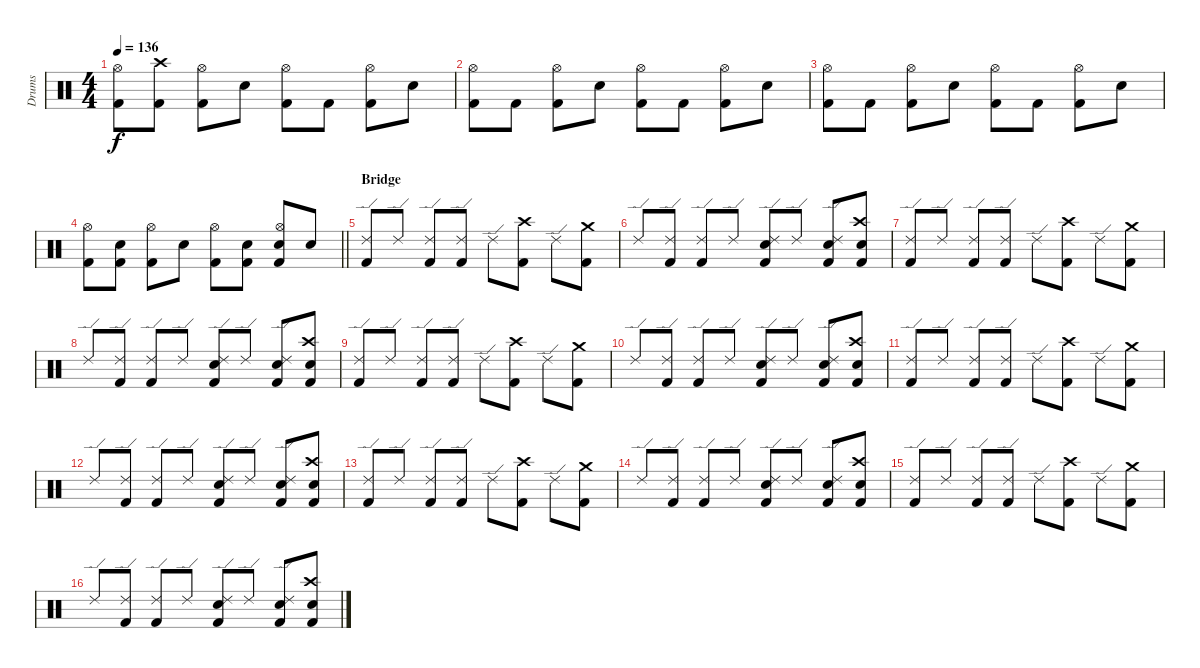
\track ("Drums" "Drums") {instrument percussion}
\staff {score}
\articulation defaults
\ts (4 4)
\tempo 136
\clef neutral
\ks c
("Kick (hit) 2" "Hi-Hat (open)").8{dy f} ("Kick (hit) 2" "Crash high (hit)").8 ("Kick (hit) 2" "Hi-Hat (open)").8 "Snare (hit) 2".8 ("Kick (hit) 2" "Hi-Hat (open)").8 "Kick (hit) 2".8 ("Kick (hit) 2" "Hi-Hat (open)").8 "Snare (hit) 2".8 |
("Kick (hit) 2" "Hi-Hat (open)").8 "Kick (hit) 2".8 ("Kick (hit) 2" "Hi-Hat (open)").8 "Snare (hit) 2".8 ("Kick (hit) 2" "Hi-Hat (open)").8 "Kick (hit) 2".8 ("Kick (hit) 2" "Hi-Hat (open)").8 "Snare (hit) 2".8 |
("Kick (hit) 2" "Hi-Hat (open)").8 "Kick (hit) 2".8 ("Kick (hit) 2" "Hi-Hat (open)").8 "Snare (hit) 2".8 ("Kick (hit) 2" "Hi-Hat (open)").8 "Kick (hit) 2".8 ("Kick (hit) 2" "Hi-Hat (open)").8 "Snare (hit) 2".8 |
\barLineRight lightlight
("Kick (hit) 2" "Hi-Hat (open)").8 ("Kick (hit) 2" "Snare (hit) 2").8 ("Kick (hit) 2" "Hi-Hat (open)").8 "Snare (hit) 2".8 ("Kick (hit) 2" "Hi-Hat (open)").8 ("Kick (hit) 2" "Snare (hit) 2").8 ("Kick (hit) 2" "Hi-Hat (open)" "Snare (hit) 2").8 "Snare (hit) 2".8 |
\section ("" "Bridge")
("Kick (hit) 2" "Ride (edge) 2").8 "Ride (edge) 2".8 ("Kick (hit) 2" "Ride (edge) 2").8 ("Kick (hit) 2" "Ride (edge) 2").8 "Ride (edge) 2".8 ("Kick (hit) 2" "Crash high (hit)").8 "Ride (edge) 2".8 ("Kick (hit) 2" "Crash medium (hit)").8 |
"Ride (edge) 2".8 ("Kick (hit) 2" "Ride (edge) 2").8 ("Kick (hit) 2" "Ride (edge) 2").8 "Ride (edge) 2".8 ("Kick (hit) 2" "Snare (hit) 2" "Ride (edge) 2").8 "Ride (edge) 2".8 ("Kick (hit) 2" "Snare (hit) 2" "Ride (edge) 2").8 ("Kick (hit) 2" "Snare (hit) 2" "Crash high (hit)").8 |
("Kick (hit) 2" "Ride (edge) 2").8 "Ride (edge) 2".8 ("Kick (hit) 2" "Ride (edge) 2").8 ("Kick (hit) 2" "Ride (edge) 2").8 "Ride (edge) 2".8 ("Kick (hit) 2" "Crash high (hit)").8 "Ride (edge) 2".8 ("Kick (hit) 2" "Crash medium (hit)").8 |
"Ride (edge) 2".8 ("Kick (hit) 2" "Ride (edge) 2").8 ("Kick (hit) 2" "Ride (edge) 2").8 "Ride (edge) 2".8 ("Kick (hit) 2" "Snare (hit) 2" "Ride (edge) 2").8 "Ride (edge) 2".8 ("Kick (hit) 2" "Snare (hit) 2" "Ride (edge) 2").8 ("Kick (hit) 2" "Snare (hit) 2" "Crash high (hit)").8 |
("Kick (hit) 2" "Ride (edge) 2").8 "Ride (edge) 2".8 ("Kick (hit) 2" "Ride (edge) 2").8 ("Kick (hit) 2" "Ride (edge) 2").8 "Ride (edge) 2".8 ("Kick (hit) 2" "Crash high (hit)").8 "Ride (edge) 2".8 ("Kick (hit) 2" "Crash medium (hit)").8 |
"Ride (edge) 2".8 ("Kick (hit) 2" "Ride (edge) 2").8 ("Kick (hit) 2" "Ride (edge) 2").8 "Ride (edge) 2".8 ("Kick (hit) 2" "Snare (hit) 2" "Ride (edge) 2").8 "Ride (edge) 2".8 ("Kick (hit) 2" "Snare (hit) 2" "Ride (edge) 2").8 ("Kick (hit) 2" "Snare (hit) 2" "Crash high (hit)").8 |
("Kick (hit) 2" "Ride (edge) 2").8 "Ride (edge) 2".8 ("Kick (hit) 2" "Ride (edge) 2").8 ("Kick (hit) 2" "Ride (edge) 2").8 "Ride (edge) 2".8 ("Kick (hit) 2" "Crash high (hit)").8 "Ride (edge) 2".8 ("Kick (hit) 2" "Crash medium (hit)").8 |
"Ride (edge) 2".8 ("Kick (hit) 2" "Ride (edge) 2").8 ("Kick (hit) 2" "Ride (edge) 2").8 "Ride (edge) 2".8 ("Kick (hit) 2" "Snare (hit) 2" "Ride (edge) 2").8 "Ride (edge) 2".8 ("Kick (hit) 2" "Snare (hit) 2" "Ride (edge) 2").8 ("Kick (hit) 2" "Snare (hit) 2" "Crash high (hit)").8 |
("Kick (hit) 2" "Ride (edge) 2").8 "Ride (edge) 2".8 ("Kick (hit) 2" "Ride (edge) 2").8 ("Kick (hit) 2" "Ride (edge) 2").8 "Ride (edge) 2".8 ("Kick (hit) 2" "Crash high (hit)").8 "Ride (edge) 2".8 ("Kick (hit) 2" "Crash medium (hit)").8 |
"Ride (edge) 2".8 ("Kick (hit) 2" "Ride (edge) 2").8 ("Kick (hit) 2" "Ride (edge) 2").8 "Ride (edge) 2".8 ("Kick (hit) 2" "Snare (hit) 2" "Ride (edge) 2").8 "Ride (edge) 2".8 ("Kick (hit) 2" "Snare (hit) 2" "Ride (edge) 2").8 ("Kick (hit) 2" "Snare (hit) 2" "Crash high (hit)").8 |
("Kick (hit) 2" "Ride (edge) 2").8 "Ride (edge) 2".8 ("Kick (hit) 2" "Ride (edge) 2").8 ("Kick (hit) 2" "Ride (edge) 2").8 "Ride (edge) 2".8 ("Kick (hit) 2" "Crash high (hit)").8 "Ride (edge) 2".8 ("Kick (hit) 2" "Crash medium (hit)").8 |
"Ride (edge) 2".8 ("Kick (hit) 2" "Ride (edge) 2").8 ("Kick (hit) 2" "Ride (edge) 2").8 "Ride (edge) 2".8 ("Kick (hit) 2" "Snare (hit) 2" "Ride (edge) 2").8 "Ride (edge) 2".8 ("Kick (hit) 2" "Snare (hit) 2" "Ride (edge) 2").8 ("Kick (hit) 2" "Snare (hit) 2" "Crash high (hit)").8
